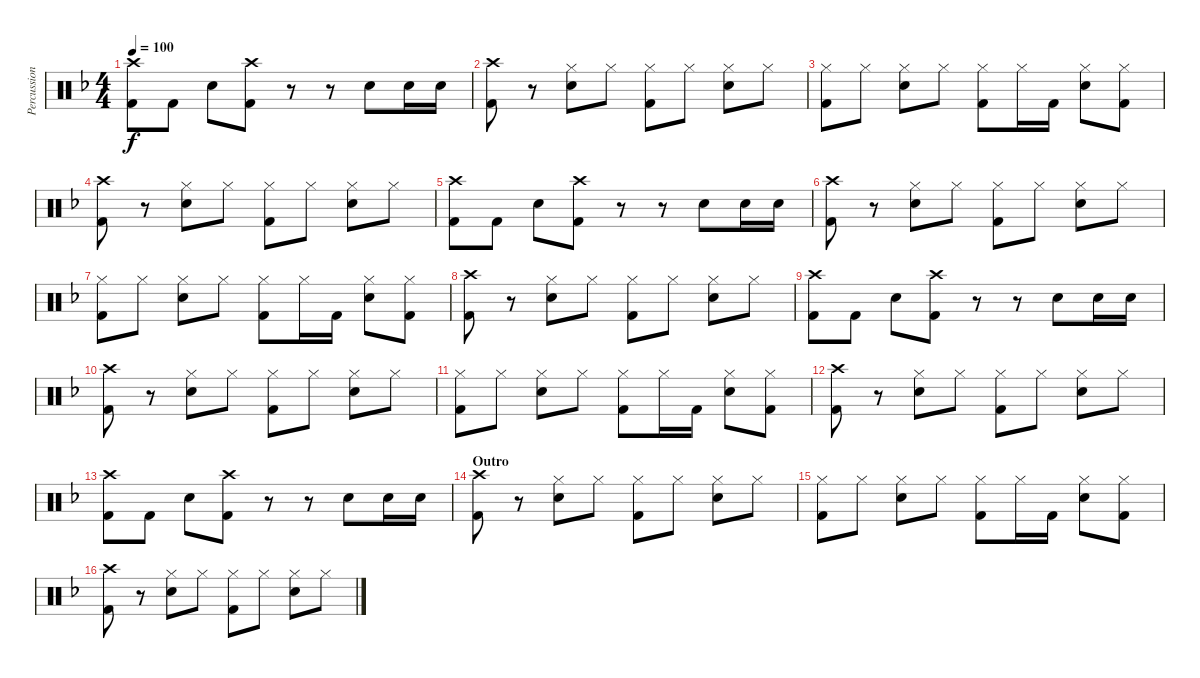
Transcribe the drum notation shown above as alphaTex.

\track ("Percussion" "Percussion") {instrument percussion}
\staff {score}
\articulation defaults
\ts (4 4)
\tempo 100
\clef neutral
\ks dminor
("Crash high (hit)" "Kick (hit) 2").8{dy f} "Kick (hit) 2".8 "Snare (hit) 2".8 ("Crash high (hit)" "Kick (hit) 2").8 r.8 r.8 "Snare (hit) 2".8 "Snare (hit) 2".16 "Snare (hit) 2".16 |
("Crash high (hit)" "Kick (hit) 2").8 r.8 ("Hi-Hat (closed)" "Snare (hit) 2").8 "Hi-Hat (closed)".8 ("Hi-Hat (closed)" "Kick (hit) 2").8 "Hi-Hat (closed)".8 ("Hi-Hat (closed)" "Snare (hit) 2").8 "Hi-Hat (closed)".8 |
("Hi-Hat (closed)" "Kick (hit) 2").8 "Hi-Hat (closed)".8 ("Hi-Hat (closed)" "Snare (hit) 2").8 "Hi-Hat (closed)".8 ("Hi-Hat (closed)" "Kick (hit) 2").8 "Hi-Hat (closed)".16 "Kick (hit) 2".16 ("Hi-Hat (closed)" "Snare (hit) 2").8 ("Hi-Hat (closed)" "Kick (hit) 2").8 |
("Crash high (hit)" "Kick (hit) 2").8 r.8 ("Hi-Hat (closed)" "Snare (hit) 2").8 "Hi-Hat (closed)".8 ("Hi-Hat (closed)" "Kick (hit) 2").8 "Hi-Hat (closed)".8 ("Hi-Hat (closed)" "Snare (hit) 2").8 "Hi-Hat (closed)".8 |
("Crash high (hit)" "Kick (hit) 2").8 "Kick (hit) 2".8 "Snare (hit) 2".8 ("Crash high (hit)" "Kick (hit) 2").8 r.8 r.8 "Snare (hit) 2".8 "Snare (hit) 2".16 "Snare (hit) 2".16 |
("Crash high (hit)" "Kick (hit) 2").8 r.8 ("Hi-Hat (closed)" "Snare (hit) 2").8 "Hi-Hat (closed)".8 ("Hi-Hat (closed)" "Kick (hit) 2").8 "Hi-Hat (closed)".8 ("Hi-Hat (closed)" "Snare (hit) 2").8 "Hi-Hat (closed)".8 |
("Hi-Hat (closed)" "Kick (hit) 2").8 "Hi-Hat (closed)".8 ("Hi-Hat (closed)" "Snare (hit) 2").8 "Hi-Hat (closed)".8 ("Hi-Hat (closed)" "Kick (hit) 2").8 "Hi-Hat (closed)".16 "Kick (hit) 2".16 ("Hi-Hat (closed)" "Snare (hit) 2").8 ("Hi-Hat (closed)" "Kick (hit) 2").8 |
("Crash high (hit)" "Kick (hit) 2").8 r.8 ("Hi-Hat (closed)" "Snare (hit) 2").8 "Hi-Hat (closed)".8 ("Hi-Hat (closed)" "Kick (hit) 2").8 "Hi-Hat (closed)".8 ("Hi-Hat (closed)" "Snare (hit) 2").8 "Hi-Hat (closed)".8 |
("Crash high (hit)" "Kick (hit) 2").8 "Kick (hit) 2".8 "Snare (hit) 2".8 ("Crash high (hit)" "Kick (hit) 2").8 r.8 r.8 "Snare (hit) 2".8 "Snare (hit) 2".16 "Snare (hit) 2".16 |
("Crash high (hit)" "Kick (hit) 2").8 r.8 ("Hi-Hat (closed)" "Snare (hit) 2").8 "Hi-Hat (closed)".8 ("Hi-Hat (closed)" "Kick (hit) 2").8 "Hi-Hat (closed)".8 ("Hi-Hat (closed)" "Snare (hit) 2").8 "Hi-Hat (closed)".8 |
("Hi-Hat (closed)" "Kick (hit) 2").8 "Hi-Hat (closed)".8 ("Hi-Hat (closed)" "Snare (hit) 2").8 "Hi-Hat (closed)".8 ("Hi-Hat (closed)" "Kick (hit) 2").8 "Hi-Hat (closed)".16 "Kick (hit) 2".16 ("Hi-Hat (closed)" "Snare (hit) 2").8 ("Hi-Hat (closed)" "Kick (hit) 2").8 |
("Crash high (hit)" "Kick (hit) 2").8 r.8 ("Hi-Hat (closed)" "Snare (hit) 2").8 "Hi-Hat (closed)".8 ("Hi-Hat (closed)" "Kick (hit) 2").8 "Hi-Hat (closed)".8 ("Hi-Hat (closed)" "Snare (hit) 2").8 "Hi-Hat (closed)".8 |
("Crash high (hit)" "Kick (hit) 2").8 "Kick (hit) 2".8 "Snare (hit) 2".8 ("Crash high (hit)" "Kick (hit) 2").8 r.8 r.8 "Snare (hit) 2".8 "Snare (hit) 2".16 "Snare (hit) 2".16 |
\section ("" "Outro")
("Crash high (hit)" "Kick (hit) 2").8 r.8 ("Hi-Hat (closed)" "Snare (hit) 2").8 "Hi-Hat (closed)".8 ("Hi-Hat (closed)" "Kick (hit) 2").8 "Hi-Hat (closed)".8 ("Hi-Hat (closed)" "Snare (hit) 2").8 "Hi-Hat (closed)".8 |
("Hi-Hat (closed)" "Kick (hit) 2").8 "Hi-Hat (closed)".8 ("Hi-Hat (closed)" "Snare (hit) 2").8 "Hi-Hat (closed)".8 ("Hi-Hat (closed)" "Kick (hit) 2").8 "Hi-Hat (closed)".16 "Kick (hit) 2".16 ("Hi-Hat (closed)" "Snare (hit) 2").8 ("Hi-Hat (closed)" "Kick (hit) 2").8 |
("Crash high (hit)" "Kick (hit) 2").8 r.8 ("Hi-Hat (closed)" "Snare (hit) 2").8 "Hi-Hat (closed)".8 ("Hi-Hat (closed)" "Kick (hit) 2").8 "Hi-Hat (closed)".8 ("Hi-Hat (closed)" "Snare (hit) 2").8 "Hi-Hat (closed)".8
